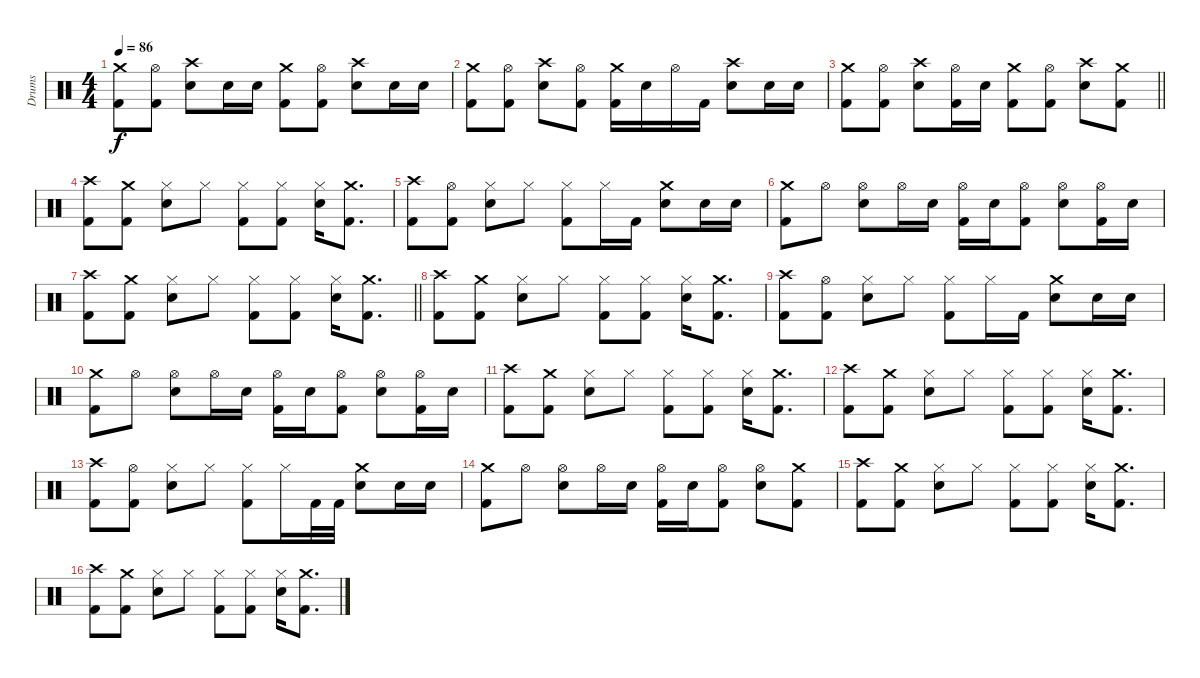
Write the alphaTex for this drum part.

\track ("Drums" "Drums") {instrument percussion}
\staff {score}
\articulation defaults
\ts (4 4)
\tempo 86
\clef neutral
\ks c
("Crash medium (hit)" "Kick (hit) 2").8{dy f} ("Hi-Hat (open)" "Kick (hit) 2").8 ("Crash high (hit)" "Electric Snare (hit)").8 "Electric Snare (hit)".16 "Electric Snare (hit)".16 ("Crash medium (hit)" "Kick (hit) 2").8 ("Hi-Hat (open)" "Kick (hit) 2").8 ("Crash high (hit)" "Electric Snare (hit)").8 "Electric Snare (hit)".16 "Electric Snare (hit)".16 |
("Crash medium (hit)" "Kick (hit) 2").8 ("Hi-Hat (open)" "Kick (hit) 2").8 ("Crash high (hit)" "Electric Snare (hit)").8 ("Hi-Hat (open)" "Kick (hit) 2").8 ("Crash medium (hit)" "Kick (hit) 2").16 "Electric Snare (hit)".16 "Hi-Hat (open)".16 "Kick (hit) 2".16 ("Crash high (hit)" "Electric Snare (hit)").8 "Electric Snare (hit)".16 "Electric Snare (hit)".16 |
\barLineRight lightlight
("Crash medium (hit)" "Kick (hit) 2").8 ("Hi-Hat (open)" "Kick (hit) 2").8 ("Crash high (hit)" "Electric Snare (hit)").8 ("Hi-Hat (open)" "Kick (hit) 2").16 "Electric Snare (hit)".16 ("Crash medium (hit)" "Kick (hit) 2").8 ("Hi-Hat (open)" "Kick (hit) 2").8 ("Crash high (hit)" "Electric Snare (hit)").8 ("Crash medium (hit)" "Kick (hit) 2").8 |
("Crash high (hit)" "Kick (hit) 2").8 ("Crash medium (hit)" "Kick (hit) 2").8 ("Hi-Hat (closed)" "Electric Snare (hit)").8 "Hi-Hat (closed)".8 ("Hi-Hat (closed)" "Kick (hit) 2").8 ("Hi-Hat (closed)" "Kick (hit) 2").8 ("Hi-Hat (closed)" "Electric Snare (hit)").16 ("Crash medium (hit)" "Kick (hit) 2").8{d} |
("Crash high (hit)" "Kick (hit) 2").8 ("Hi-Hat (open)" "Kick (hit) 2").8 ("Hi-Hat (closed)" "Electric Snare (hit)").8 "Hi-Hat (closed)".8 ("Hi-Hat (closed)" "Kick (hit) 2").8 "Hi-Hat (closed)".16 "Kick (hit) 2".16 ("Crash medium (hit)" "Electric Snare (hit)").8 "Electric Snare (hit)".16 "Electric Snare (hit)".16 |
("Crash medium (hit)" "Kick (hit) 2").8 "Hi-Hat (open)".8 ("Hi-Hat (open)" "Electric Snare (hit)").8 "Hi-Hat (open)".16 "Electric Snare (hit)".16 ("Hi-Hat (open)" "Kick (hit) 2").16 "Electric Snare (hit)".16 ("Hi-Hat (open)" "Kick (hit) 2").8 ("Hi-Hat (open)" "Electric Snare (hit)").8 ("Hi-Hat (open)" "Kick (hit) 2").16 "Electric Snare (hit)".16 |
\barLineRight lightlight
("Crash high (hit)" "Kick (hit) 2").8 ("Crash medium (hit)" "Kick (hit) 2").8 ("Hi-Hat (closed)" "Electric Snare (hit)").8 "Hi-Hat (closed)".8 ("Hi-Hat (closed)" "Kick (hit) 2").8 ("Hi-Hat (closed)" "Kick (hit) 2").8 ("Hi-Hat (closed)" "Electric Snare (hit)").16 ("Crash medium (hit)" "Kick (hit) 2").8{d} |
("Crash high (hit)" "Kick (hit) 2").8 ("Crash medium (hit)" "Kick (hit) 2").8 ("Hi-Hat (closed)" "Electric Snare (hit)").8 "Hi-Hat (closed)".8 ("Hi-Hat (closed)" "Kick (hit) 2").8 ("Hi-Hat (closed)" "Kick (hit) 2").8 ("Hi-Hat (closed)" "Electric Snare (hit)").16 ("Crash medium (hit)" "Kick (hit) 2").8{d} |
("Crash high (hit)" "Kick (hit) 2").8 ("Hi-Hat (open)" "Kick (hit) 2").8 ("Hi-Hat (closed)" "Electric Snare (hit)").8 "Hi-Hat (closed)".8 ("Hi-Hat (closed)" "Kick (hit) 2").8 "Hi-Hat (closed)".16 "Kick (hit) 2".16 ("Crash medium (hit)" "Electric Snare (hit)").8 "Electric Snare (hit)".16 "Electric Snare (hit)".16 |
("Crash medium (hit)" "Kick (hit) 2").8 "Hi-Hat (open)".8 ("Hi-Hat (open)" "Electric Snare (hit)").8 "Hi-Hat (open)".16 "Electric Snare (hit)".16 ("Hi-Hat (open)" "Kick (hit) 2").16 "Electric Snare (hit)".16 ("Hi-Hat (open)" "Kick (hit) 2").8 ("Hi-Hat (open)" "Electric Snare (hit)").8 ("Hi-Hat (open)" "Kick (hit) 2").16 "Electric Snare (hit)".16 |
("Crash high (hit)" "Kick (hit) 2").8 ("Crash medium (hit)" "Kick (hit) 2").8 ("Hi-Hat (closed)" "Electric Snare (hit)").8 "Hi-Hat (closed)".8 ("Hi-Hat (closed)" "Kick (hit) 2").8 ("Hi-Hat (closed)" "Kick (hit) 2").8 ("Hi-Hat (closed)" "Electric Snare (hit)").16 ("Crash medium (hit)" "Kick (hit) 2").8{d} |
("Crash high (hit)" "Kick (hit) 2").8 ("Crash medium (hit)" "Kick (hit) 2").8 ("Hi-Hat (closed)" "Electric Snare (hit)").8 "Hi-Hat (closed)".8 ("Hi-Hat (closed)" "Kick (hit) 2").8 ("Hi-Hat (closed)" "Kick (hit) 2").8 ("Hi-Hat (closed)" "Electric Snare (hit)").16 ("Crash medium (hit)" "Kick (hit) 2").8{d} |
("Crash high (hit)" "Kick (hit) 2").8 ("Hi-Hat (open)" "Kick (hit) 2").8 ("Hi-Hat (closed)" "Electric Snare (hit)").8 "Hi-Hat (closed)".8 ("Hi-Hat (closed)" "Kick (hit) 2").8 "Hi-Hat (closed)".16 "Kick (hit) 2".32 "Kick (hit) 2".32 ("Crash medium (hit)" "Electric Snare (hit)").8 "Electric Snare (hit)".16 "Electric Snare (hit)".16 |
("Crash medium (hit)" "Kick (hit) 2").8 "Hi-Hat (open)".8 ("Hi-Hat (open)" "Electric Snare (hit)").8 "Hi-Hat (open)".16 "Electric Snare (hit)".16 ("Hi-Hat (open)" "Kick (hit) 2").16 "Electric Snare (hit)".16 ("Hi-Hat (open)" "Kick (hit) 2").8 ("Hi-Hat (open)" "Electric Snare (hit)").8 ("Crash medium (hit)" "Kick (hit) 2").8 |
("Crash high (hit)" "Kick (hit) 2").8 ("Crash medium (hit)" "Kick (hit) 2").8 ("Hi-Hat (closed)" "Electric Snare (hit)").8 "Hi-Hat (closed)".8 ("Hi-Hat (closed)" "Kick (hit) 2").8 ("Hi-Hat (closed)" "Kick (hit) 2").8 ("Hi-Hat (closed)" "Electric Snare (hit)").16 ("Crash medium (hit)" "Kick (hit) 2").8{d} |
("Crash high (hit)" "Kick (hit) 2").8 ("Crash medium (hit)" "Kick (hit) 2").8 ("Hi-Hat (closed)" "Electric Snare (hit)").8 "Hi-Hat (closed)".8 ("Hi-Hat (closed)" "Kick (hit) 2").8 ("Hi-Hat (closed)" "Kick (hit) 2").8 ("Hi-Hat (closed)" "Electric Snare (hit)").16 ("Crash medium (hit)" "Kick (hit) 2").8{d}
